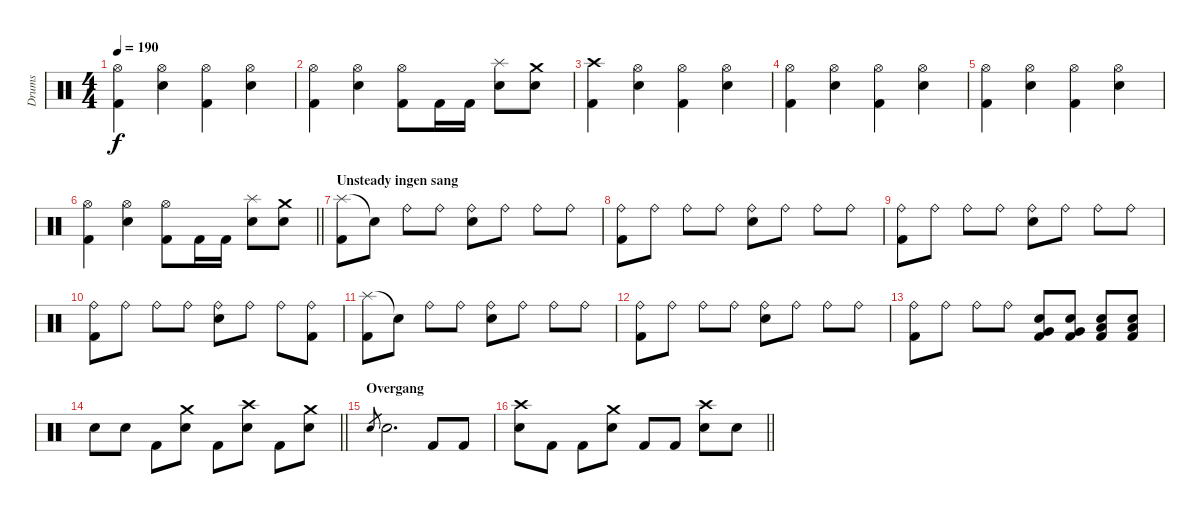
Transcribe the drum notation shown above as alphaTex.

\track ("Drums" "Drums") {instrument percussion}
\staff {score}
\articulation defaults
\ts (4 4)
\tempo 190
\clef neutral
\ks c
("Hi-Hat (open)" "Kick (hit) 2").4{dy f} ("Hi-Hat (open)" "Snare (hit) 2").4 ("Hi-Hat (open)" "Kick (hit) 2").4 ("Hi-Hat (open)" "Snare (hit) 2").4 |
("Hi-Hat (open)" "Kick (hit) 2").4 ("Hi-Hat (open)" "Snare (hit) 2").4 ("Hi-Hat (open)" "Kick (hit) 2").8 "Kick (hit) 2".16 "Kick (hit) 2".16 ("Splash (hit)" "Snare (hit) 2").8 ("Crash medium (hit)" "Snare (hit) 2").8 |
("Crash high (hit)" "Kick (hit) 2").4 ("Hi-Hat (open)" "Snare (hit) 2").4 ("Hi-Hat (open)" "Kick (hit) 2").4 ("Hi-Hat (open)" "Snare (hit) 2").4 |
("Hi-Hat (open)" "Kick (hit) 2").4 ("Hi-Hat (open)" "Snare (hit) 2").4 ("Hi-Hat (open)" "Kick (hit) 2").4 ("Hi-Hat (open)" "Snare (hit) 2").4 |
("Hi-Hat (open)" "Kick (hit) 2").4 ("Hi-Hat (open)" "Snare (hit) 2").4 ("Hi-Hat (open)" "Kick (hit) 2").4 ("Hi-Hat (open)" "Snare (hit) 2").4 |
\barLineRight lightlight
("Hi-Hat (open)" "Kick (hit) 2").4 ("Hi-Hat (open)" "Snare (hit) 2").4 ("Hi-Hat (open)" "Kick (hit) 2").8 "Kick (hit) 2".16 "Kick (hit) 2".16 ("Splash (hit)" "Snare (hit) 2").8 ("Crash medium (hit)" "Snare (hit) 2").8 |
\section ("" "Unsteady ingen sang")
("Splash (hit)" "Kick (hit) 2").8 "Snare (hit)"{t}.8 "Ride (bell)".8 "Ride (bell)".8 ("Ride (bell)" "Snare (hit) 2").8 "Ride (bell)".8 "Ride (bell)".8 "Ride (bell)".8 |
("Ride (bell)" "Kick (hit) 2").8 "Ride (bell)".8 "Ride (bell)".8 "Ride (bell)".8 ("Ride (bell)" "Snare (hit) 2").8 "Ride (bell)".8 "Ride (bell)".8 "Ride (bell)".8 |
("Ride (bell)" "Kick (hit) 2").8 "Ride (bell)".8 "Ride (bell)".8 "Ride (bell)".8 ("Ride (bell)" "Snare (hit) 2").8 "Ride (bell)".8 "Ride (bell)".8 "Ride (bell)".8 |
("Ride (bell)" "Kick (hit) 2").8 "Ride (bell)".8 "Ride (bell)".8 "Ride (bell)".8 ("Ride (bell)" "Snare (hit) 2").8 "Ride (bell)".8 "Ride (bell)".8 ("Ride (bell)" "Kick (hit) 2").8 |
("Splash (hit)" "Kick (hit) 2").8 "Snare (hit)"{t}.8 "Ride (bell)".8 "Ride (bell)".8 ("Ride (bell)" "Snare (hit) 2").8 "Ride (bell)".8 "Ride (bell)".8 "Ride (bell)".8 |
("Ride (bell)" "Kick (hit) 2").8 "Ride (bell)".8 "Ride (bell)".8 "Ride (bell)".8 ("Ride (bell)" "Snare (hit) 2").8 "Ride (bell)".8 "Ride (bell)".8 "Ride (bell)".8 |
("Ride (bell)" "Kick (hit) 2").8 "Ride (bell)".8 "Ride (bell)".8 "Ride (bell)".8 ("Very Low Tom (hit)" "Snare (hit) 2" "Kick (hit) 2").8{volume 8} ("Very Low Tom (hit)" "Snare (hit) 2" "Kick (hit) 2").8{volume 11} ("Low Floor Tom (hit)" "Snare (hit) 2" "Kick (hit) 2").8{volume 13} ("Low Floor Tom (hit)" "Snare (hit) 2" "Kick (hit) 2").8{volume 16} |
\barLineRight lightlight "Snare (hit) 2".8 "Snare (hit) 2".8 "Kick (hit) 2".8
("Crash medium (hit)" "Snare (hit) 2").8 "Kick (hit) 2".8 ("Crash high (hit)" "Snare (hit) 2").8 "Kick (hit) 2".8 ("Crash medium (hit)" "Snare (hit) 2").8 |
\section ("" "Overgang")
"Snare (hit) 2".8{gr} "Snare (hit) 2".2{d} "Kick (hit) 2".8 "Kick (hit) 2".8 |
\barLineRight lightlight
("Crash high (hit)" "Snare (hit) 2").8 "Kick (hit) 2".8 "Kick (hit) 2".8 ("Crash medium (hit)" "Snare (hit) 2").8 "Kick (hit) 2".8 "Kick (hit) 2".8 ("Crash high (hit)" "Snare (hit) 2").8 "Snare (hit) 2".8
